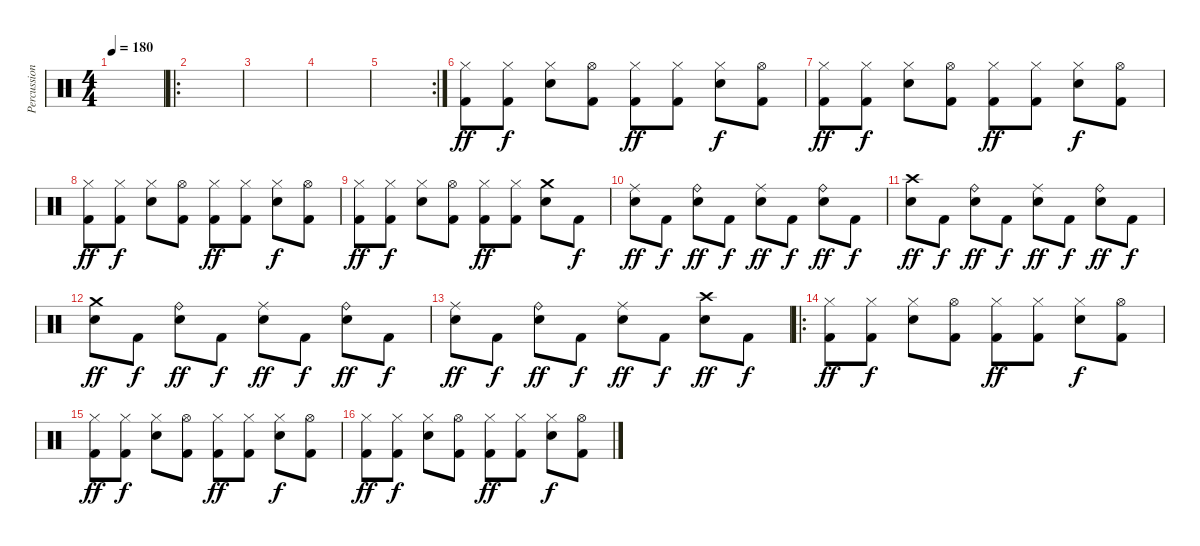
\track ("Percussions" "Percussion") {instrument percussion}
\staff {score}
\articulation defaults
\ts (4 4)
\tempo 180
\clef neutral
\ks c
|
\ro
|
|
|
\rc 2
|
("Hi-Hat (closed)" "Kick (hit) 2").8{dy ff} ("Hi-Hat (closed)" "Kick (hit) 2").8{dy f} ("Hi-Hat (closed)" "Snare (hit) 2").8 ("Hi-Hat (open)" "Kick (hit) 2").8 ("Hi-Hat (closed)" "Kick (hit) 2").8{dy ff} ("Hi-Hat (closed)" "Kick (hit) 2").8 ("Hi-Hat (closed)" "Snare (hit) 2").8{dy f} ("Hi-Hat (open)" "Kick (hit) 2").8 |
("Hi-Hat (closed)" "Kick (hit) 2").8{dy ff} ("Hi-Hat (closed)" "Kick (hit) 2").8{dy f} ("Hi-Hat (closed)" "Snare (hit) 2").8 ("Hi-Hat (open)" "Kick (hit) 2").8 ("Hi-Hat (closed)" "Kick (hit) 2").8{dy ff} ("Hi-Hat (closed)" "Kick (hit) 2").8 ("Hi-Hat (closed)" "Snare (hit) 2").8{dy f} ("Hi-Hat (open)" "Kick (hit) 2").8 |
("Hi-Hat (closed)" "Kick (hit) 2").8{dy ff} ("Hi-Hat (closed)" "Kick (hit) 2").8{dy f} ("Hi-Hat (closed)" "Snare (hit) 2").8 ("Hi-Hat (open)" "Kick (hit) 2").8 ("Hi-Hat (closed)" "Kick (hit) 2").8{dy ff} ("Hi-Hat (closed)" "Kick (hit) 2").8 ("Hi-Hat (closed)" "Snare (hit) 2").8{dy f} ("Hi-Hat (open)" "Kick (hit) 2").8 |
("Hi-Hat (closed)" "Kick (hit) 2").8{dy ff} ("Hi-Hat (closed)" "Kick (hit) 2").8{dy f} ("Hi-Hat (closed)" "Snare (hit) 2").8 ("Hi-Hat (open)" "Kick (hit) 2").8 ("Hi-Hat (closed)" "Kick (hit) 2").8{dy ff} ("Hi-Hat (closed)" "Kick (hit) 2").8 ("Crash medium (hit)" "Snare (hit) 2").8 "Kick (hit) 2".8{dy f} |
("Ride (middle)" "Snare (hit) 2").8{dy ff} "Kick (hit) 2".8{dy f} ("Ride (bell)" "Snare (hit) 2").8{dy ff} "Kick (hit) 2".8{dy f} ("Ride (middle)" "Snare (hit) 2").8{dy ff} "Kick (hit) 2".8{dy f} ("Ride (bell)" "Snare (hit) 2").8{dy ff} "Kick (hit) 2".8{dy f} |
("Crash high (hit)" "Snare (hit) 2").8{dy ff} "Kick (hit) 2".8{dy f} ("Ride (bell)" "Snare (hit) 2").8{dy ff} "Kick (hit) 2".8{dy f} ("Ride (middle)" "Snare (hit) 2").8{dy ff} "Kick (hit) 2".8{dy f} ("Ride (bell)" "Snare (hit) 2").8{dy ff} "Kick (hit) 2".8{dy f} |
("Crash medium (hit)" "Snare (hit) 2").8{dy ff} "Kick (hit) 2".8{dy f} ("Ride (bell)" "Snare (hit) 2").8{dy ff} "Kick (hit) 2".8{dy f} ("Ride (middle)" "Snare (hit) 2").8{dy ff} "Kick (hit) 2".8{dy f} ("Ride (bell)" "Snare (hit) 2").8{dy ff} "Kick (hit) 2".8{dy f} |
("Ride (middle)" "Snare (hit) 2").8{dy ff} "Kick (hit) 2".8{dy f} ("Ride (bell)" "Snare (hit) 2").8{dy ff} "Kick (hit) 2".8{dy f} ("Ride (middle)" "Snare (hit) 2").8{dy ff} "Kick (hit) 2".8{dy f} ("Crash high (hit)" "Snare (hit) 2").8{dy ff} "Kick (hit) 2".8{dy f} |
\ro
("Hi-Hat (closed)" "Kick (hit) 2").8{dy ff} ("Hi-Hat (closed)" "Kick (hit) 2").8{dy f} ("Hi-Hat (closed)" "Snare (hit) 2").8 ("Hi-Hat (open)" "Kick (hit) 2").8 ("Hi-Hat (closed)" "Kick (hit) 2").8{dy ff} ("Hi-Hat (closed)" "Kick (hit) 2").8 ("Hi-Hat (closed)" "Snare (hit) 2").8{dy f} ("Hi-Hat (open)" "Kick (hit) 2").8 |
("Hi-Hat (closed)" "Kick (hit) 2").8{dy ff} ("Hi-Hat (closed)" "Kick (hit) 2").8{dy f} ("Hi-Hat (closed)" "Snare (hit) 2").8 ("Hi-Hat (open)" "Kick (hit) 2").8 ("Hi-Hat (closed)" "Kick (hit) 2").8{dy ff} ("Hi-Hat (closed)" "Kick (hit) 2").8 ("Hi-Hat (closed)" "Snare (hit) 2").8{dy f} ("Hi-Hat (open)" "Kick (hit) 2").8 |
("Hi-Hat (closed)" "Kick (hit) 2").8{dy ff} ("Hi-Hat (closed)" "Kick (hit) 2").8{dy f} ("Hi-Hat (closed)" "Snare (hit) 2").8 ("Hi-Hat (open)" "Kick (hit) 2").8 ("Hi-Hat (closed)" "Kick (hit) 2").8{dy ff} ("Hi-Hat (closed)" "Kick (hit) 2").8 ("Hi-Hat (closed)" "Snare (hit) 2").8{dy f} ("Hi-Hat (open)" "Kick (hit) 2").8
